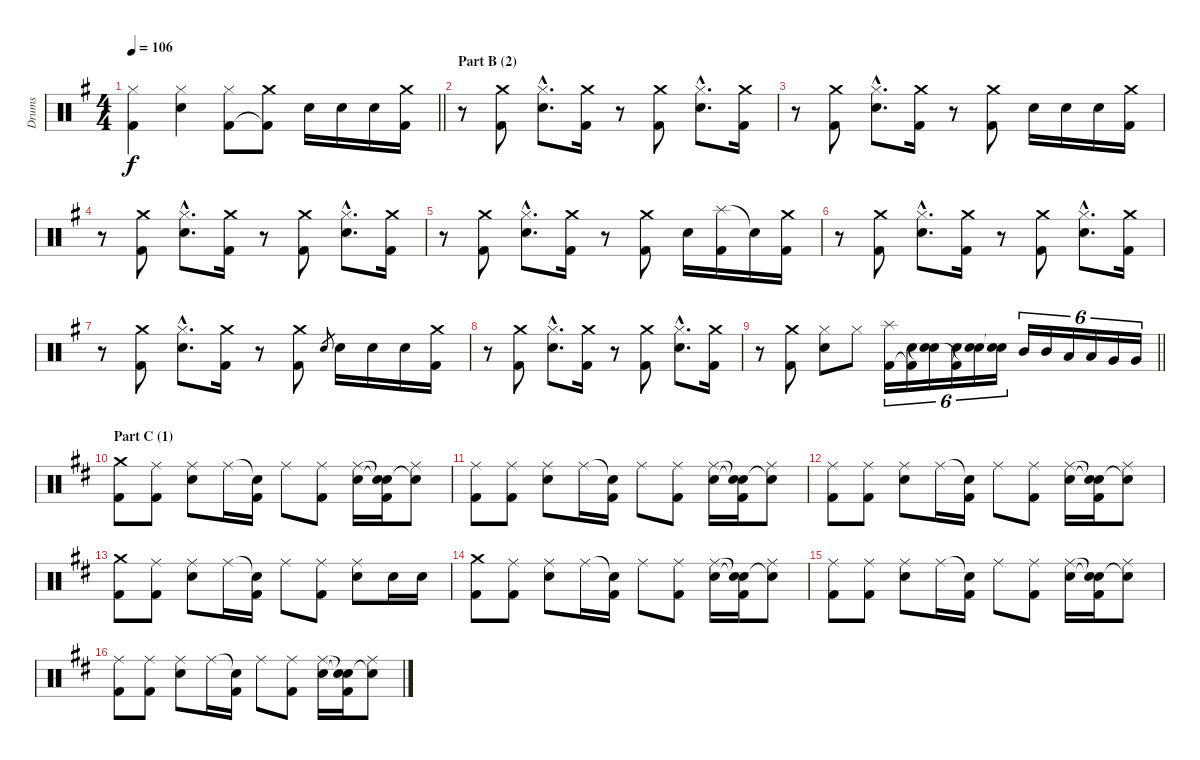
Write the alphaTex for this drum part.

\track ("Drums" "Drums") {instrument percussion}
\staff {score}
\articulation defaults
\ts (4 4)
\tempo 106
\clef neutral
\barLineRight lightlight
\ks g
("Hi-Hat (closed)" "Kick (hit) 2").4{dy f} ("Hi-Hat (closed)" "Electric Snare (hit)").4 ("Hi-Hat (closed)" "Kick (hit) 2").8 ("Crash medium (hit)" "Kick (hit) 2"{t}).8 "Electric Snare (hit)".16 "Electric Snare (hit)".16 "Electric Snare (hit)".16 ("Crash medium (hit)" "Kick (hit) 2").16 |
\section ("" "Part B (2)")
r.8 ("Crash medium (hit)" "Kick (hit) 2").8 ("Hi-Hat (closed)"{hac} "Electric Snare (hit)"{hac}).8{d} ("Crash medium (hit)" "Kick (hit) 2").16 r.8 ("Crash medium (hit)" "Kick (hit) 2").8 ("Hi-Hat (closed)"{hac} "Electric Snare (hit)"{hac}).8{d} ("Crash medium (hit)" "Kick (hit) 2").16 |
r.8 ("Crash medium (hit)" "Kick (hit) 2").8 ("Hi-Hat (closed)"{hac} "Electric Snare (hit)"{hac}).8{d} ("Crash medium (hit)" "Kick (hit) 2").16 r.8 ("Crash medium (hit)" "Kick (hit) 2").8 "Electric Snare (hit)".16 "Electric Snare (hit)".16 "Electric Snare (hit)".16 ("Crash medium (hit)" "Kick (hit) 2").16 |
r.8 ("Crash medium (hit)" "Kick (hit) 2").8 ("Hi-Hat (closed)"{hac} "Electric Snare (hit)"{hac}).8{d} ("Crash medium (hit)" "Kick (hit) 2").16 r.8 ("Crash medium (hit)" "Kick (hit) 2").8 ("Hi-Hat (closed)"{hac} "Electric Snare (hit)"{hac}).8{d} ("Crash medium (hit)" "Kick (hit) 2").16 |
r.8 ("Crash medium (hit)" "Kick (hit) 2").8 ("Hi-Hat (closed)"{hac} "Electric Snare (hit)"{hac}).8{d} ("Crash medium (hit)" "Kick (hit) 2").16 r.8 ("Crash medium (hit)" "Kick (hit) 2").8 "Electric Snare (hit)".16 ("Splash (hit)" "Kick (hit) 2").16 "Snare (hit)"{t}.16 ("Crash medium (hit)" "Kick (hit) 2").16 |
r.8 ("Crash medium (hit)" "Kick (hit) 2").8 ("Hi-Hat (closed)"{hac} "Electric Snare (hit)"{hac}).8{d} ("Crash medium (hit)" "Kick (hit) 2").16 r.8 ("Crash medium (hit)" "Kick (hit) 2").8 ("Hi-Hat (closed)"{hac} "Electric Snare (hit)"{hac}).8{d} ("Crash medium (hit)" "Kick (hit) 2").16 |
r.8 ("Crash medium (hit)" "Kick (hit) 2").8 ("Hi-Hat (closed)"{hac} "Electric Snare (hit)"{hac}).8{d} ("Crash medium (hit)" "Kick (hit) 2").16 r.8 ("Crash medium (hit)" "Kick (hit) 2").8 "Electric Snare (hit)".8{gr} "Electric Snare (hit)".16 "Electric Snare (hit)".16 "Electric Snare (hit)".16 ("Crash medium (hit)" "Kick (hit) 2").16 |
r.8 ("Crash medium (hit)" "Kick (hit) 2").8 ("Hi-Hat (closed)"{hac} "Electric Snare (hit)"{hac}).8{d} ("Crash medium (hit)" "Kick (hit) 2").16 r.8 ("Crash medium (hit)" "Kick (hit) 2").8 ("Hi-Hat (closed)"{hac} "Electric Snare (hit)"{hac}).8{d} ("Crash medium (hit)" "Kick (hit) 2").16 |
\barLineRight lightlight
r.8 ("Crash medium (hit)" "Kick (hit) 2").8 ("Hi-Hat (closed)" "Electric Snare (hit)").8 "Hi-Hat (closed)".8 ("Splash (hit)" "Kick (hit) 2").16{tu (6 4)} ("Electric Snare (hit)" "Kick (hit) 2"{t}).16{tu (6 4)} ("Electric Snare (hit)" "Snare (hit)"{t}).16{tu (6 4)} ("Electric Snare (hit)" "Kick (hit) 2"{t}).16{tu (6 4)} ("Electric Snare (hit)" "Snare (hit)"{t}).16{tu (6 4)} ("Electric Snare (hit)" "Snare (hit)"{t}).16{tu (6 4)} "Mid Tom (hit)".16{tu (6 4)} "Mid Tom (hit)".16{tu (6 4)} "Low Tom (hit)".16{tu (6 4)} "Low Tom (hit)".16{tu (6 4)} "Very Low Tom (hit)".16{tu (6 4)} "Very Low Tom (hit)".16{tu (6 4)} |
\section ("" "Part C (1)")
\ks d
("Crash medium (hit)" "Kick (hit) 2").8 ("Ride (middle)" "Kick (hit) 2").8 ("Ride (middle)" "Electric Snare (hit)").8 "Ride (middle)".16 ("Snare (hit)"{t} "Kick (hit) 2").16 "Ride (middle)".8 ("Ride (middle)" "Kick (hit) 2").8 ("Ride (middle)" "Electric Snare (hit)").16 ("Snare (hit)"{t} "Snare (hit)"{t} "Kick (hit) 2").16 ("Ride (middle)" "Snare (hit)"{t}).8 |
("Ride (middle)" "Kick (hit) 2").8 ("Ride (middle)" "Kick (hit) 2").8 ("Ride (middle)" "Electric Snare (hit)").8 "Ride (middle)".16 ("Snare (hit)"{t} "Kick (hit) 2").16 "Ride (middle)".8 ("Ride (middle)" "Kick (hit) 2").8 ("Ride (middle)" "Electric Snare (hit)").16 ("Snare (hit)"{t} "Snare (hit)"{t} "Kick (hit) 2").16 ("Ride (middle)" "Snare (hit)"{t}).8 |
("Ride (middle)" "Kick (hit) 2").8 ("Ride (middle)" "Kick (hit) 2").8 ("Ride (middle)" "Electric Snare (hit)").8 "Ride (middle)".16 ("Snare (hit)"{t} "Kick (hit) 2").16 "Ride (middle)".8 ("Ride (middle)" "Kick (hit) 2").8 ("Ride (middle)" "Electric Snare (hit)").16 ("Snare (hit)"{t} "Snare (hit)"{t} "Kick (hit) 2").16 ("Ride (middle)" "Snare (hit)"{t}).8 |
("Crash medium (hit)" "Kick (hit) 2").8 ("Ride (middle)" "Kick (hit) 2").8 ("Ride (middle)" "Electric Snare (hit)").8 "Ride (middle)".16 ("Snare (hit)"{t} "Kick (hit) 2").16 "Ride (middle)".8 ("Ride (middle)" "Kick (hit) 2").8 ("Ride (middle)" "Electric Snare (hit)").8 "Electric Snare (hit)".16 "Electric Snare (hit)".16 |
("Crash medium (hit)" "Kick (hit) 2").8 ("Ride (middle)" "Kick (hit) 2").8 ("Ride (middle)" "Electric Snare (hit)").8 "Ride (middle)".16 ("Snare (hit)"{t} "Kick (hit) 2").16 "Ride (middle)".8 ("Ride (middle)" "Kick (hit) 2").8 ("Ride (middle)" "Electric Snare (hit)").16 ("Snare (hit)"{t} "Snare (hit)"{t} "Kick (hit) 2").16 ("Ride (middle)" "Snare (hit)"{t}).8 |
("Ride (middle)" "Kick (hit) 2").8 ("Ride (middle)" "Kick (hit) 2").8 ("Ride (middle)" "Electric Snare (hit)").8 "Ride (middle)".16 ("Snare (hit)"{t} "Kick (hit) 2").16 "Ride (middle)".8 ("Ride (middle)" "Kick (hit) 2").8 ("Ride (middle)" "Electric Snare (hit)").16 ("Snare (hit)"{t} "Snare (hit)"{t} "Kick (hit) 2").16 ("Ride (middle)" "Snare (hit)"{t}).8 |
("Ride (middle)" "Kick (hit) 2").8 ("Ride (middle)" "Kick (hit) 2").8 ("Ride (middle)" "Electric Snare (hit)").8 "Ride (middle)".16 ("Snare (hit)"{t} "Kick (hit) 2").16 "Ride (middle)".8 ("Ride (middle)" "Kick (hit) 2").8 ("Ride (middle)" "Electric Snare (hit)").16 ("Snare (hit)"{t} "Snare (hit)"{t} "Kick (hit) 2").16 ("Ride (middle)" "Snare (hit)"{t}).8
